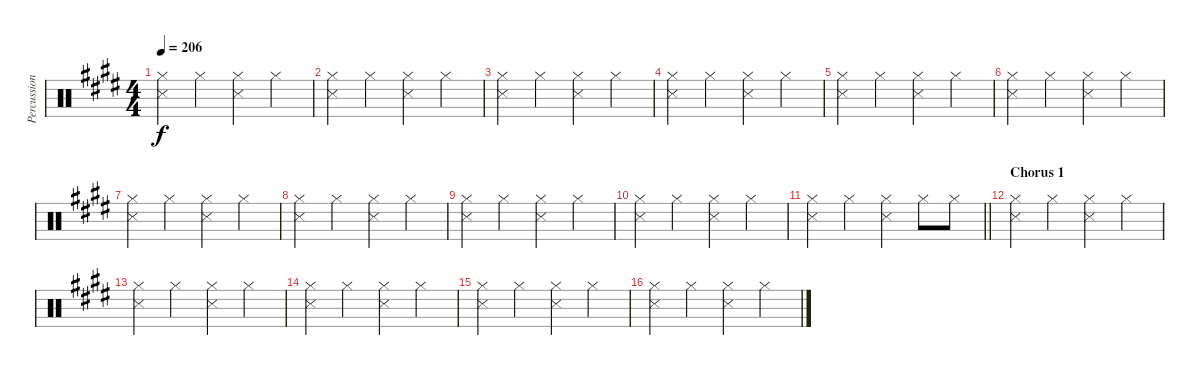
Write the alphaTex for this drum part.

\track ("Percussion" "Percussion") {instrument percussion}
\staff {score}
\articulation defaults
\ts (4 4)
\tempo 206
\clef neutral
\ks e
("Hi-Hat (closed)" "Snare (side stick) 3").4{dy f} "Hi-Hat (closed)".4 ("Hi-Hat (closed)" "Snare (side stick) 3").4 "Hi-Hat (closed)".4 |
("Hi-Hat (closed)" "Snare (side stick) 3").4 "Hi-Hat (closed)".4 ("Hi-Hat (closed)" "Snare (side stick) 3").4 "Hi-Hat (closed)".4 |
("Hi-Hat (closed)" "Snare (side stick) 3").4 "Hi-Hat (closed)".4 ("Hi-Hat (closed)" "Snare (side stick) 3").4 "Hi-Hat (closed)".4 |
("Hi-Hat (closed)" "Snare (side stick) 3").4 "Hi-Hat (closed)".4 ("Hi-Hat (closed)" "Snare (side stick) 3").4 "Hi-Hat (closed)".4 |
("Hi-Hat (closed)" "Snare (side stick) 3").4 "Hi-Hat (closed)".4 ("Hi-Hat (closed)" "Snare (side stick) 3").4 "Hi-Hat (closed)".4 |
("Hi-Hat (closed)" "Snare (side stick) 3").4 "Hi-Hat (closed)".4 ("Hi-Hat (closed)" "Snare (side stick) 3").4 "Hi-Hat (closed)".4 |
("Hi-Hat (closed)" "Snare (side stick) 3").4 "Hi-Hat (closed)".4 ("Hi-Hat (closed)" "Snare (side stick) 3").4 "Hi-Hat (closed)".4 |
("Hi-Hat (closed)" "Snare (side stick) 3").4 "Hi-Hat (closed)".4 ("Hi-Hat (closed)" "Snare (side stick) 3").4 "Hi-Hat (closed)".4 |
("Hi-Hat (closed)" "Snare (side stick) 3").4 "Hi-Hat (closed)".4 ("Hi-Hat (closed)" "Snare (side stick) 3").4 "Hi-Hat (closed)".4 |
("Hi-Hat (closed)" "Snare (side stick) 3").4 "Hi-Hat (closed)".4 ("Hi-Hat (closed)" "Snare (side stick) 3").4 "Hi-Hat (closed)".4 |
\barLineRight lightlight
("Hi-Hat (closed)" "Snare (side stick) 3").4 "Hi-Hat (closed)".4 ("Hi-Hat (closed)" "Snare (side stick) 3").4 "Hi-Hat (closed)".8 "Hi-Hat (closed)".8 |
\section ("" "Chorus 1")
("Hi-Hat (closed)" "Snare (side stick) 3").4 "Hi-Hat (closed)".4 ("Hi-Hat (closed)" "Snare (side stick) 3").4 "Hi-Hat (closed)".4 |
("Hi-Hat (closed)" "Snare (side stick) 3").4 "Hi-Hat (closed)".4 ("Hi-Hat (closed)" "Snare (side stick) 3").4 "Hi-Hat (closed)".4 |
("Hi-Hat (closed)" "Snare (side stick) 3").4 "Hi-Hat (closed)".4 ("Hi-Hat (closed)" "Snare (side stick) 3").4 "Hi-Hat (closed)".4 |
("Hi-Hat (closed)" "Snare (side stick) 3").4 "Hi-Hat (closed)".4 ("Hi-Hat (closed)" "Snare (side stick) 3").4 "Hi-Hat (closed)".4 |
("Hi-Hat (closed)" "Snare (side stick) 3").4 "Hi-Hat (closed)".4 ("Hi-Hat (closed)" "Snare (side stick) 3").4 "Hi-Hat (closed)".4
